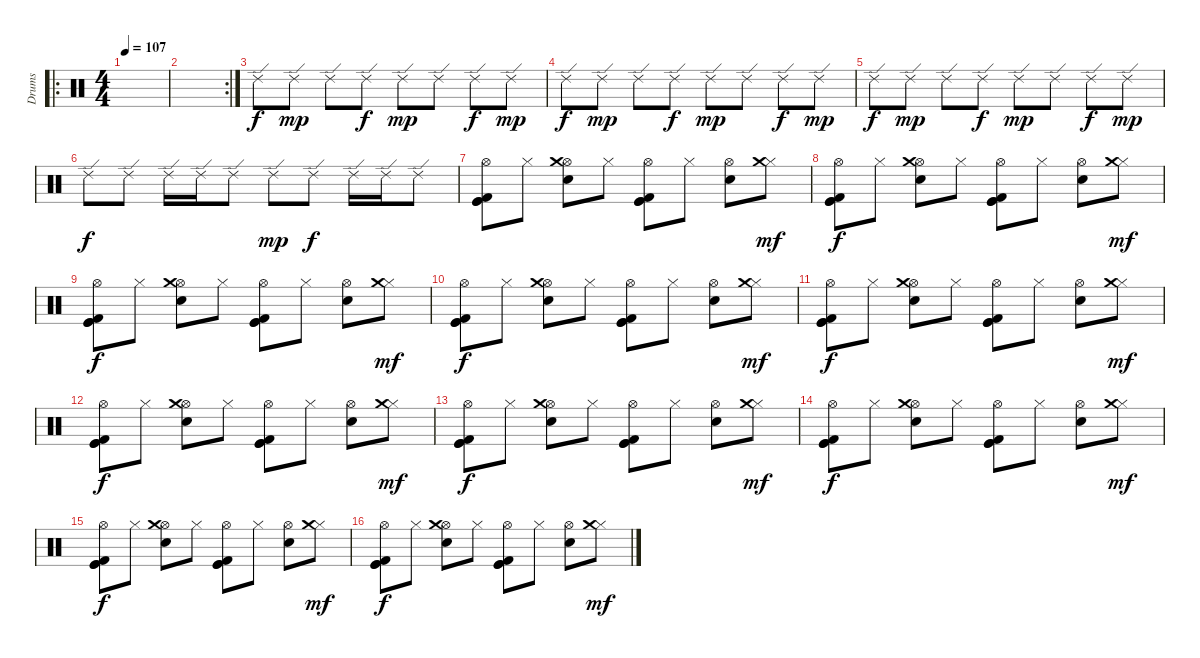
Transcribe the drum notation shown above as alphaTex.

\track ("Drums" "Drums") {instrument percussion}
\staff {score}
\articulation defaults
\ro
\ts (4 4)
\tempo 107
\clef neutral
\ks c
|
\rc 2
|
"Ride (edge) 2".8 "Ride (edge) 2".8{dy mp} "Ride (edge) 2".8 "Ride (edge) 2".8{dy f} "Ride (edge) 2".8{dy mp} "Ride (edge) 2".8 "Ride (edge) 2".8{dy f} "Ride (edge) 2".8{dy mp} |
"Ride (edge) 2".8{dy f} "Ride (edge) 2".8{dy mp} "Ride (edge) 2".8 "Ride (edge) 2".8{dy f} "Ride (edge) 2".8{dy mp} "Ride (edge) 2".8 "Ride (edge) 2".8{dy f} "Ride (edge) 2".8{dy mp} |
"Ride (edge) 2".8{dy f} "Ride (edge) 2".8{dy mp} "Ride (edge) 2".8 "Ride (edge) 2".8{dy f} "Ride (edge) 2".8{dy mp} "Ride (edge) 2".8 "Ride (edge) 2".8{dy f} "Ride (edge) 2".8{dy mp} |
"Ride (edge) 2".8{dy f} "Ride (edge) 2".8 "Ride (edge) 2".16 "Ride (edge) 2".16 "Ride (edge) 2".8 "Ride (edge) 2".8{dy mp} "Ride (edge) 2".8{dy f} "Ride (edge) 2".16 "Ride (edge) 2".16 "Ride (edge) 2".8 |
("Hi-Hat (open)" "Kick (hit) 2" "Kick (hit)" "Kick (hit)").8 "Hi-Hat (closed)".8 ("Hi-Hat (open)" "Crash medium (hit)" "Snare (hit) 2").8 "Hi-Hat (closed)".8 ("Hi-Hat (open)" "Kick (hit) 2" "Kick (hit)" "Kick (hit)").8 "Hi-Hat (closed)".8 ("Hi-Hat (open)" "Electric Snare (hit)").8 ("Hi-Hat (closed)" "Crash medium (hit)").8{dy mf} |
("Hi-Hat (open)" "Kick (hit) 2" "Kick (hit)" "Kick (hit)").8{dy f} "Hi-Hat (closed)".8 ("Hi-Hat (open)" "Crash medium (hit)" "Snare (hit) 2").8 "Hi-Hat (closed)".8 ("Hi-Hat (open)" "Kick (hit) 2" "Kick (hit)" "Kick (hit)").8 "Hi-Hat (closed)".8 ("Hi-Hat (open)" "Electric Snare (hit)").8 ("Hi-Hat (closed)" "Crash medium (hit)").8{dy mf} |
("Hi-Hat (open)" "Kick (hit) 2" "Kick (hit)" "Kick (hit)").8{dy f} "Hi-Hat (closed)".8 ("Hi-Hat (open)" "Crash medium (hit)" "Snare (hit) 2").8 "Hi-Hat (closed)".8 ("Hi-Hat (open)" "Kick (hit) 2" "Kick (hit)" "Kick (hit)").8 "Hi-Hat (closed)".8 ("Hi-Hat (open)" "Electric Snare (hit)").8 ("Hi-Hat (closed)" "Crash medium (hit)").8{dy mf} |
("Hi-Hat (open)" "Kick (hit) 2" "Kick (hit)" "Kick (hit)").8{dy f} "Hi-Hat (closed)".8 ("Hi-Hat (open)" "Crash medium (hit)" "Snare (hit) 2").8 "Hi-Hat (closed)".8 ("Hi-Hat (open)" "Kick (hit) 2" "Kick (hit)" "Kick (hit)").8 "Hi-Hat (closed)".8 ("Hi-Hat (open)" "Electric Snare (hit)").8 ("Hi-Hat (closed)" "Crash medium (hit)").8{dy mf} |
("Hi-Hat (open)" "Kick (hit) 2" "Kick (hit)" "Kick (hit)").8{dy f} "Hi-Hat (closed)".8 ("Hi-Hat (open)" "Crash medium (hit)" "Snare (hit) 2").8 "Hi-Hat (closed)".8 ("Hi-Hat (open)" "Kick (hit) 2" "Kick (hit)" "Kick (hit)").8 "Hi-Hat (closed)".8 ("Hi-Hat (open)" "Electric Snare (hit)").8 ("Hi-Hat (closed)" "Crash medium (hit)").8{dy mf} |
("Hi-Hat (open)" "Kick (hit) 2" "Kick (hit)" "Kick (hit)").8{dy f} "Hi-Hat (closed)".8 ("Hi-Hat (open)" "Crash medium (hit)" "Snare (hit) 2").8 "Hi-Hat (closed)".8 ("Hi-Hat (open)" "Kick (hit) 2" "Kick (hit)" "Kick (hit)").8 "Hi-Hat (closed)".8 ("Hi-Hat (open)" "Electric Snare (hit)").8 ("Hi-Hat (closed)" "Crash medium (hit)").8{dy mf} |
("Hi-Hat (open)" "Kick (hit) 2" "Kick (hit)" "Kick (hit)").8{dy f} "Hi-Hat (closed)".8 ("Hi-Hat (open)" "Crash medium (hit)" "Snare (hit) 2").8 "Hi-Hat (closed)".8 ("Hi-Hat (open)" "Kick (hit) 2" "Kick (hit)" "Kick (hit)").8 "Hi-Hat (closed)".8 ("Hi-Hat (open)" "Electric Snare (hit)").8 ("Hi-Hat (closed)" "Crash medium (hit)").8{dy mf} |
("Hi-Hat (open)" "Kick (hit) 2" "Kick (hit)" "Kick (hit)").8{dy f} "Hi-Hat (closed)".8 ("Hi-Hat (open)" "Crash medium (hit)" "Snare (hit) 2").8 "Hi-Hat (closed)".8 ("Hi-Hat (open)" "Kick (hit) 2" "Kick (hit)" "Kick (hit)").8 "Hi-Hat (closed)".8 ("Hi-Hat (open)" "Electric Snare (hit)").8 ("Hi-Hat (closed)" "Crash medium (hit)").8{dy mf} |
("Hi-Hat (open)" "Kick (hit) 2" "Kick (hit)" "Kick (hit)").8{dy f} "Hi-Hat (closed)".8 ("Hi-Hat (open)" "Crash medium (hit)" "Snare (hit) 2").8 "Hi-Hat (closed)".8 ("Hi-Hat (open)" "Kick (hit) 2" "Kick (hit)" "Kick (hit)").8 "Hi-Hat (closed)".8 ("Hi-Hat (open)" "Electric Snare (hit)").8 ("Hi-Hat (closed)" "Crash medium (hit)").8{dy mf} |
("Hi-Hat (open)" "Kick (hit) 2" "Kick (hit)" "Kick (hit)").8{dy f} "Hi-Hat (closed)".8 ("Hi-Hat (open)" "Crash medium (hit)" "Snare (hit) 2").8 "Hi-Hat (closed)".8 ("Hi-Hat (open)" "Kick (hit) 2" "Kick (hit)" "Kick (hit)").8 "Hi-Hat (closed)".8 ("Hi-Hat (open)" "Electric Snare (hit)").8 ("Hi-Hat (closed)" "Crash medium (hit)").8{dy mf}
